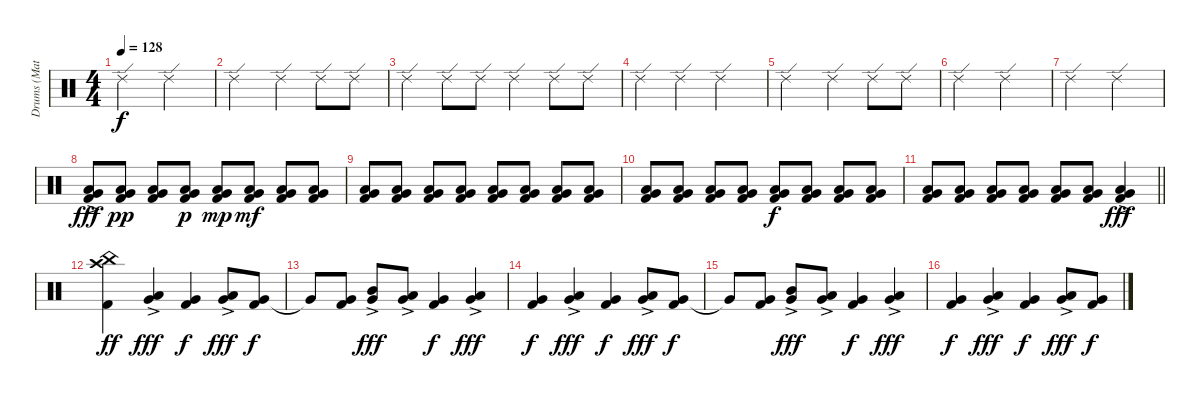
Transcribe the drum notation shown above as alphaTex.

\track ("Drums (Matt)" "Drums (Mat") {instrument percussion}
\staff {score}
\articulation defaults
\ts (4 4)
\tempo 128
\clef neutral
\ks c "Ride (edge) 2".2{dy f} "Ride (edge) 2".2
|
"Ride (edge) 2".2 "Ride (edge) 2".4 "Ride (edge) 2".8 "Ride (edge) 2".8 |
"Ride (edge) 2".4 "Ride (edge) 2".8 "Ride (edge) 2".8 "Ride (edge) 2".4 "Ride (edge) 2".8 "Ride (edge) 2".8 |
"Ride (edge) 2".4 "Ride (edge) 2".4 "Ride (edge) 2".2 |
"Ride (edge) 2".2 "Ride (edge) 2".4 "Ride (edge) 2".8 "Ride (edge) 2".8 |
"Ride (edge) 2".2 "Ride (edge) 2".2 |
"Ride (edge) 2".2 "Ride (edge) 2".2 |
("Low Tom (hit)"{ac} "Very Low Tom (hit)" "Kick (hit) 2").8{dy fff} ("Low Tom (hit)" "Very Low Tom (hit)" "Kick (hit) 2").8{dy pp} ("Low Tom (hit)" "Very Low Tom (hit)" "Kick (hit) 2").8 ("Low Tom (hit)" "Very Low Tom (hit)" "Kick (hit) 2").8{dy p} ("Low Tom (hit)" "Very Low Tom (hit)" "Kick (hit) 2").8{dy mp} ("Low Tom (hit)" "Very Low Tom (hit)" "Kick (hit) 2").8{dy mf} ("Low Tom (hit)" "Very Low Tom (hit)" "Kick (hit) 2").8 ("Low Tom (hit)" "Very Low Tom (hit)" "Kick (hit) 2").8 |
("Low Tom (hit)" "Very Low Tom (hit)" "Kick (hit) 2").8 ("Low Tom (hit)" "Very Low Tom (hit)" "Kick (hit) 2").8 ("Low Tom (hit)" "Very Low Tom (hit)" "Kick (hit) 2").8 ("Low Tom (hit)" "Very Low Tom (hit)" "Kick (hit) 2").8 ("Low Tom (hit)" "Very Low Tom (hit)" "Kick (hit) 2").8 ("Low Tom (hit)" "Very Low Tom (hit)" "Kick (hit) 2").8 ("Low Tom (hit)" "Very Low Tom (hit)" "Kick (hit) 2").8 ("Low Tom (hit)" "Very Low Tom (hit)" "Kick (hit) 2").8 |
("Low Tom (hit)" "Very Low Tom (hit)" "Kick (hit) 2").8 ("Low Tom (hit)" "Very Low Tom (hit)" "Kick (hit) 2").8 ("Low Tom (hit)" "Very Low Tom (hit)" "Kick (hit) 2").8 ("Low Tom (hit)" "Very Low Tom (hit)" "Kick (hit) 2").8 ("Low Tom (hit)" "Very Low Tom (hit)" "Kick (hit) 2").8{dy f} ("Low Tom (hit)" "Very Low Tom (hit)" "Kick (hit) 2").8 ("Low Tom (hit)" "Very Low Tom (hit)" "Kick (hit) 2").8 ("Low Tom (hit)" "Very Low Tom (hit)" "Kick (hit) 2").8 |
\barLineRight lightlight
("Low Tom (hit)" "Very Low Tom (hit)" "Kick (hit) 2").8 ("Low Tom (hit)" "Very Low Tom (hit)" "Kick (hit) 2").8 ("Low Tom (hit)" "Very Low Tom (hit)" "Kick (hit) 2").8 ("Low Tom (hit)" "Very Low Tom (hit)" "Kick (hit) 2").8 ("Low Tom (hit)" "Very Low Tom (hit)" "Kick (hit) 2").8 ("Low Tom (hit)" "Very Low Tom (hit)" "Kick (hit) 2").8 ("Low Tom (hit)" "Very Low Tom (hit)"{ac} "Kick (hit) 2").4{dy fff} |
("Crash high (hit)" "China (hit)" "Kick (hit) 2").4{dy ff} ("Low Tom (hit)" "Very Low Tom (hit)"{ac}).4{dy fff} ("Very Low Tom (hit)" "Kick (hit) 2").4{dy f} ("Low Tom (hit)" "Very Low Tom (hit)"{ac}).8{dy fff} ("Very Low Tom (hit)" "Kick (hit) 2").8{dy f} |
"Very Low Tom (hit)"{t}.8 ("Very Low Tom (hit)" "Kick (hit) 2").8 ("Mid Tom (hit)" "Very Low Tom (hit)"{ac}).8{dy fff} ("Low Tom (hit)" "Very Low Tom (hit)"{ac}).8 ("Very Low Tom (hit)" "Kick (hit) 2").4{dy f} ("Low Tom (hit)" "Very Low Tom (hit)"{ac}).4{dy fff} |
("Very Low Tom (hit)" "Kick (hit) 2").4{dy f} ("Low Tom (hit)" "Very Low Tom (hit)"{ac}).4{dy fff} ("Very Low Tom (hit)" "Kick (hit) 2").4{dy f} ("Low Tom (hit)" "Very Low Tom (hit)"{ac}).8{dy fff} ("Very Low Tom (hit)" "Kick (hit) 2").8{dy f} |
"Very Low Tom (hit)"{t}.8 ("Very Low Tom (hit)" "Kick (hit) 2").8 ("Mid Tom (hit)" "Very Low Tom (hit)"{ac}).8{dy fff} ("Low Tom (hit)" "Very Low Tom (hit)"{ac}).8 ("Very Low Tom (hit)" "Kick (hit) 2").4{dy f} ("Low Tom (hit)" "Very Low Tom (hit)"{ac}).4{dy fff} |
("Very Low Tom (hit)" "Kick (hit) 2").4{dy f} ("Low Tom (hit)" "Very Low Tom (hit)"{ac}).4{dy fff} ("Very Low Tom (hit)" "Kick (hit) 2").4{dy f} ("Low Tom (hit)" "Very Low Tom (hit)"{ac}).8{dy fff} ("Very Low Tom (hit)" "Kick (hit) 2").8{dy f}
